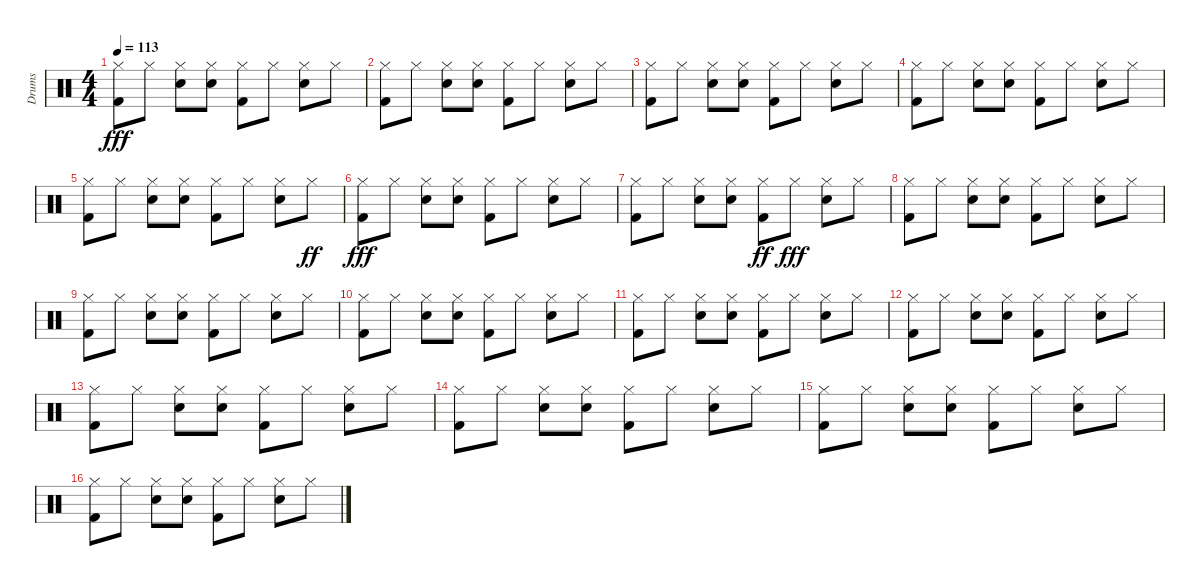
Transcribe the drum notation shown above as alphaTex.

\track ("Drums" "Drums") {instrument percussion}
\staff {score}
\articulation defaults
\ts (4 4)
\tempo 113
\clef neutral
\ks c
("Hi-Hat (closed)" "Kick (hit) 2").8{dy fff} "Hi-Hat (closed)".8 ("Hi-Hat (closed)" "Electric Snare (hit)").8 ("Hi-Hat (closed)" "Electric Snare (hit)").8 ("Hi-Hat (closed)" "Kick (hit) 2").8 "Hi-Hat (closed)".8 ("Hi-Hat (closed)" "Electric Snare (hit)").8 "Hi-Hat (closed)".8 |
("Hi-Hat (closed)" "Kick (hit) 2").8 "Hi-Hat (closed)".8 ("Hi-Hat (closed)" "Electric Snare (hit)").8 ("Hi-Hat (closed)" "Electric Snare (hit)").8 ("Hi-Hat (closed)" "Kick (hit) 2").8 "Hi-Hat (closed)".8 ("Hi-Hat (closed)" "Electric Snare (hit)").8 "Hi-Hat (closed)".8 |
("Hi-Hat (closed)" "Kick (hit) 2").8 "Hi-Hat (closed)".8 ("Hi-Hat (closed)" "Electric Snare (hit)").8 ("Hi-Hat (closed)" "Electric Snare (hit)").8 ("Hi-Hat (closed)" "Kick (hit) 2").8 "Hi-Hat (closed)".8 ("Hi-Hat (closed)" "Electric Snare (hit)").8 "Hi-Hat (closed)".8 |
("Hi-Hat (closed)" "Kick (hit) 2").8 "Hi-Hat (closed)".8 ("Hi-Hat (closed)" "Electric Snare (hit)").8 ("Hi-Hat (closed)" "Electric Snare (hit)").8 ("Hi-Hat (closed)" "Kick (hit) 2").8 "Hi-Hat (closed)".8 ("Hi-Hat (closed)" "Electric Snare (hit)").8 "Hi-Hat (closed)".8 |
("Hi-Hat (closed)" "Kick (hit) 2").8 "Hi-Hat (closed)".8 ("Hi-Hat (closed)" "Electric Snare (hit)").8 ("Hi-Hat (closed)" "Electric Snare (hit)").8 ("Hi-Hat (closed)" "Kick (hit) 2").8 "Hi-Hat (closed)".8 ("Hi-Hat (closed)" "Electric Snare (hit)").8 "Hi-Hat (closed)".8{dy ff} |
("Hi-Hat (closed)" "Kick (hit) 2").8{dy fff} "Hi-Hat (closed)".8 ("Hi-Hat (closed)" "Electric Snare (hit)").8 ("Hi-Hat (closed)" "Electric Snare (hit)").8 ("Hi-Hat (closed)" "Kick (hit) 2").8 "Hi-Hat (closed)".8 ("Hi-Hat (closed)" "Electric Snare (hit)").8 "Hi-Hat (closed)".8 |
("Hi-Hat (closed)" "Kick (hit) 2").8 "Hi-Hat (closed)".8 ("Hi-Hat (closed)" "Electric Snare (hit)").8 ("Hi-Hat (closed)" "Electric Snare (hit)").8 ("Hi-Hat (closed)" "Kick (hit) 2").8{dy ff} "Hi-Hat (closed)".8{dy fff} ("Hi-Hat (closed)" "Electric Snare (hit)").8 "Hi-Hat (closed)".8 |
("Hi-Hat (closed)" "Kick (hit) 2").8 "Hi-Hat (closed)".8 ("Hi-Hat (closed)" "Electric Snare (hit)").8 ("Hi-Hat (closed)" "Electric Snare (hit)").8 ("Hi-Hat (closed)" "Kick (hit) 2").8 "Hi-Hat (closed)".8 ("Hi-Hat (closed)" "Electric Snare (hit)").8 "Hi-Hat (closed)".8 |
("Hi-Hat (closed)" "Kick (hit) 2").8 "Hi-Hat (closed)".8 ("Hi-Hat (closed)" "Electric Snare (hit)").8 ("Hi-Hat (closed)" "Electric Snare (hit)").8 ("Hi-Hat (closed)" "Kick (hit) 2").8 "Hi-Hat (closed)".8 ("Hi-Hat (closed)" "Electric Snare (hit)").8 "Hi-Hat (closed)".8 |
("Hi-Hat (closed)" "Kick (hit) 2").8 "Hi-Hat (closed)".8 ("Hi-Hat (closed)" "Electric Snare (hit)").8 ("Hi-Hat (closed)" "Electric Snare (hit)").8 ("Hi-Hat (closed)" "Kick (hit) 2").8 "Hi-Hat (closed)".8 ("Hi-Hat (closed)" "Electric Snare (hit)").8 "Hi-Hat (closed)".8 |
("Hi-Hat (closed)" "Kick (hit) 2").8 "Hi-Hat (closed)".8 ("Hi-Hat (closed)" "Electric Snare (hit)").8 ("Hi-Hat (closed)" "Electric Snare (hit)").8 ("Hi-Hat (closed)" "Kick (hit) 2").8 "Hi-Hat (closed)".8 ("Hi-Hat (closed)" "Electric Snare (hit)").8 "Hi-Hat (closed)".8 |
("Hi-Hat (closed)" "Kick (hit) 2").8 "Hi-Hat (closed)".8 ("Hi-Hat (closed)" "Electric Snare (hit)").8 ("Hi-Hat (closed)" "Electric Snare (hit)").8 ("Hi-Hat (closed)" "Kick (hit) 2").8 "Hi-Hat (closed)".8 ("Hi-Hat (closed)" "Electric Snare (hit)").8 "Hi-Hat (closed)".8 |
("Hi-Hat (closed)" "Kick (hit) 2").8 "Hi-Hat (closed)".8 ("Hi-Hat (closed)" "Electric Snare (hit)").8 ("Hi-Hat (closed)" "Electric Snare (hit)").8 ("Hi-Hat (closed)" "Kick (hit) 2").8 "Hi-Hat (closed)".8 ("Hi-Hat (closed)" "Electric Snare (hit)").8 "Hi-Hat (closed)".8 |
("Hi-Hat (closed)" "Kick (hit) 2").8 "Hi-Hat (closed)".8 ("Hi-Hat (closed)" "Electric Snare (hit)").8 ("Hi-Hat (closed)" "Electric Snare (hit)").8 ("Hi-Hat (closed)" "Kick (hit) 2").8 "Hi-Hat (closed)".8 ("Hi-Hat (closed)" "Electric Snare (hit)").8 "Hi-Hat (closed)".8 |
("Hi-Hat (closed)" "Kick (hit) 2").8 "Hi-Hat (closed)".8 ("Hi-Hat (closed)" "Electric Snare (hit)").8 ("Hi-Hat (closed)" "Electric Snare (hit)").8 ("Hi-Hat (closed)" "Kick (hit) 2").8 "Hi-Hat (closed)".8 ("Hi-Hat (closed)" "Electric Snare (hit)").8 "Hi-Hat (closed)".8 |
("Hi-Hat (closed)" "Kick (hit) 2").8 "Hi-Hat (closed)".8 ("Hi-Hat (closed)" "Electric Snare (hit)").8 ("Hi-Hat (closed)" "Electric Snare (hit)").8 ("Hi-Hat (closed)" "Kick (hit) 2").8 "Hi-Hat (closed)".8 ("Hi-Hat (closed)" "Electric Snare (hit)").8 "Hi-Hat (closed)".8
